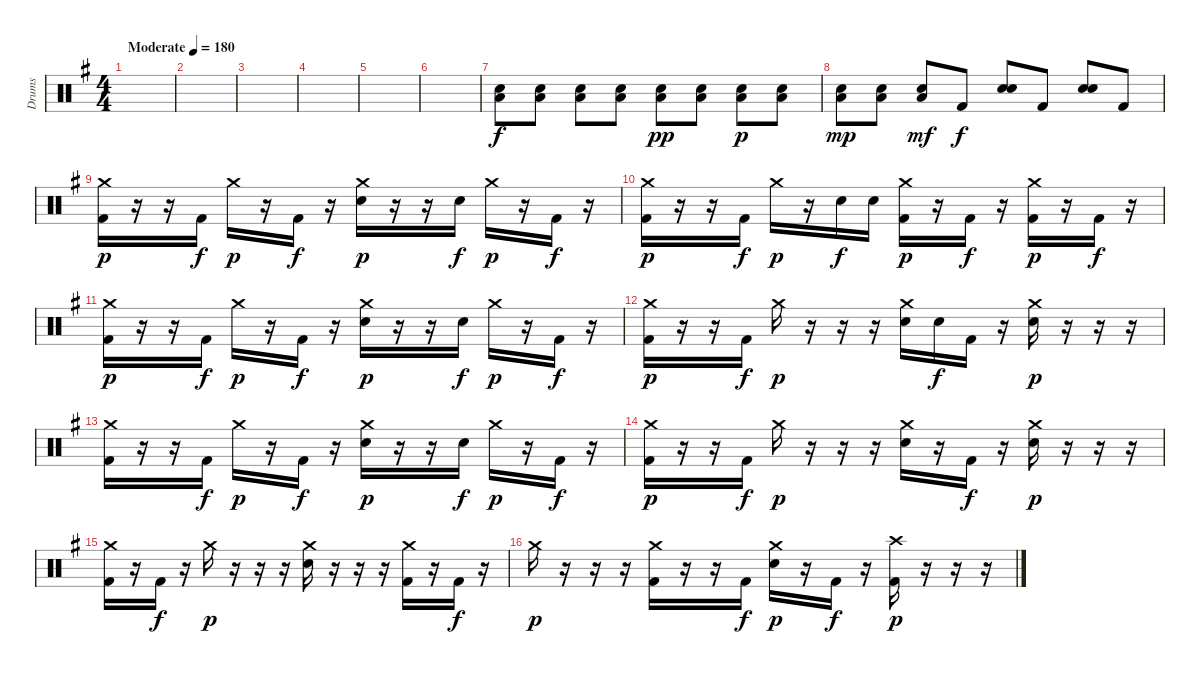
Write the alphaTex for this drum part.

\track ("Drums" "Drums") {instrument percussion}
\staff {score}
\articulation defaults
\ts (4 4)
\tempo (180 "Moderate")
\clef neutral
\ks g
|
|
|
|
|
|
("Snare (hit) 2" "Low Floor Tom (hit)").8 ("Snare (hit) 2" "Low Floor Tom (hit)").8 ("Snare (hit) 2" "Low Floor Tom (hit)").8 ("Snare (hit) 2" "Low Floor Tom (hit)").8 ("Snare (hit) 2" "Low Floor Tom (hit)").8{dy pp} ("Snare (hit) 2" "Low Floor Tom (hit)").8 ("Snare (hit) 2" "Low Floor Tom (hit)").8{dy p} ("Snare (hit) 2" "Low Floor Tom (hit)").8 |
("Snare (hit) 2" "Low Floor Tom (hit)").8{dy mp} ("Snare (hit) 2" "Low Floor Tom (hit)").8 ("Snare (hit) 2" "Low Floor Tom (hit)").8{dy mf} "Kick (hit) 2".8{dy f} ("Snare (hit) 2" "Snare (hit) 2").8 "Kick (hit) 2".8 ("Snare (hit) 2" "Snare (hit) 2").8 "Kick (hit) 2".8 |
("Crash medium (hit)" "Kick (hit) 2").16{dy p} r.16 r.16 "Kick (hit) 2".16{dy f} "Crash medium (hit)".16{dy p} r.16 "Kick (hit) 2".16{dy f} r.16 ("Crash medium (hit)" "Snare (hit) 2").16{dy p} r.16 r.16 "Snare (hit) 2".16{dy f} "Crash medium (hit)".16{dy p} r.16 "Kick (hit) 2".16{dy f} r.16 |
("Crash medium (hit)" "Kick (hit) 2").16{dy p} r.16 r.16 "Kick (hit) 2".16{dy f} "Crash medium (hit)".16{dy p} r.16 "Snare (hit) 2".16{dy f} "Snare (hit) 2".16 ("Crash medium (hit)" "Kick (hit) 2").16{dy p} r.16 "Kick (hit) 2".16{dy f} r.16 ("Crash medium (hit)" "Kick (hit) 2").16{dy p} r.16 "Kick (hit) 2".16{dy f} r.16 |
("Crash medium (hit)" "Kick (hit) 2").16{dy p} r.16 r.16 "Kick (hit) 2".16{dy f} "Crash medium (hit)".16{dy p} r.16 "Kick (hit) 2".16{dy f} r.16 ("Crash medium (hit)" "Snare (hit) 2").16{dy p} r.16 r.16 "Snare (hit) 2".16{dy f} "Crash medium (hit)".16{dy p} r.16 "Kick (hit) 2".16{dy f} r.16 |
("Crash medium (hit)" "Kick (hit) 2").16{dy p} r.16 r.16 "Kick (hit) 2".16{dy f} "Crash medium (hit)".16{dy p} r.16 r.16 r.16 ("Crash medium (hit)" "Snare (hit) 2").16 "Snare (hit) 2".16{dy f} "Kick (hit) 2".16 r.16 ("Crash medium (hit)" "Snare (hit) 2").16{dy p} r.16 r.16 r.16 |
("Crash medium (hit)" "Kick (hit) 2").16 r.16 r.16 "Kick (hit) 2".16{dy f} "Crash medium (hit)".16{dy p} r.16 "Kick (hit) 2".16{dy f} r.16 ("Crash medium (hit)" "Snare (hit) 2").16{dy p} r.16 r.16 "Snare (hit) 2".16{dy f} "Crash medium (hit)".16{dy p} r.16 "Kick (hit) 2".16{dy f} r.16 |
("Crash medium (hit)" "Kick (hit) 2").16{dy p} r.16 r.16 "Kick (hit) 2".16{dy f} "Crash medium (hit)".16{dy p} r.16 r.16 r.16 ("Crash medium (hit)" "Snare (hit) 2").16 r.16 "Kick (hit) 2".16{dy f} r.16 ("Crash medium (hit)" "Snare (hit) 2").16{dy p} r.16 r.16 r.16 |
("Crash medium (hit)" "Kick (hit) 2").16 r.16 "Kick (hit) 2".16{dy f} r.16 "Crash medium (hit)".16{dy p} r.16 r.16 r.16 ("Crash medium (hit)" "Snare (hit) 2").16 r.16 r.16 r.16 ("Crash medium (hit)" "Kick (hit) 2").16 r.16 "Kick (hit) 2".16{dy f} r.16 |
"Crash medium (hit)".16{dy p} r.16 r.16 r.16 ("Crash medium (hit)" "Kick (hit) 2").16 r.16 r.16 "Kick (hit) 2".16{dy f} ("Crash medium (hit)" "Snare (hit) 2").16{dy p} r.16 "Kick (hit) 2".16{dy f} r.16 ("Crash high (hit)" "Kick (hit) 2").16{dy p} r.16 r.16 r.16
